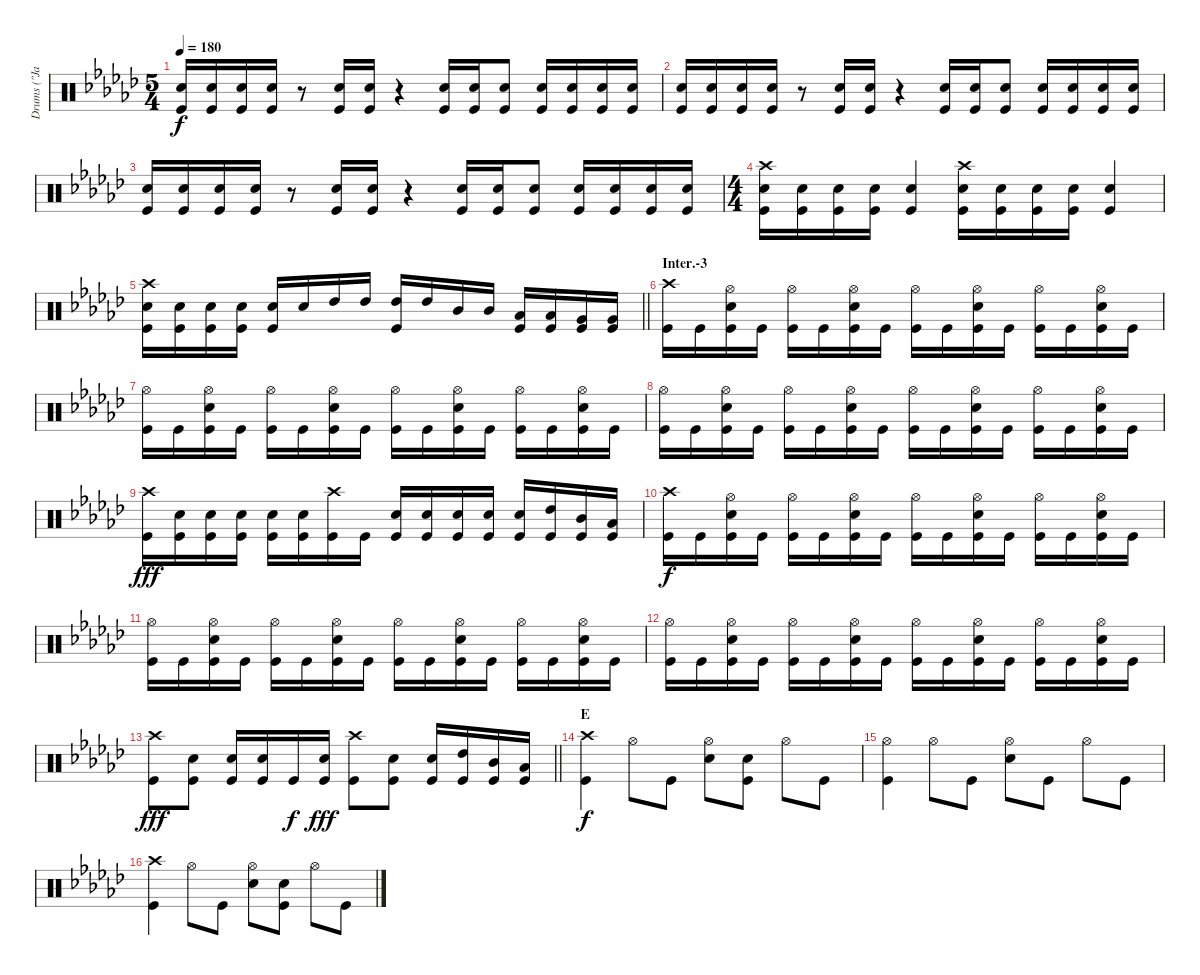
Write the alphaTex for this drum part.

\track ("Drums (\"Jane\")" "Drums (\"Ja") {instrument percussion}
\staff {score}
\articulation defaults
\ts (5 4)
\tempo 180
\clef neutral
\ks gb
("Snare (hit) 2" "Kick (hit)").16{dy f} ("Snare (hit) 2" "Kick (hit)").16 ("Snare (hit) 2" "Kick (hit)").16 ("Snare (hit) 2" "Kick (hit)").16 r.8 ("Snare (hit) 2" "Kick (hit)").16 ("Snare (hit) 2" "Kick (hit)").16 r.4 ("Snare (hit) 2" "Kick (hit)").16 ("Snare (hit) 2" "Kick (hit)").16 ("Snare (hit) 2" "Kick (hit)").8 ("Snare (hit) 2" "Kick (hit)").16 ("Snare (hit) 2" "Kick (hit)").16 ("Snare (hit) 2" "Kick (hit)").16 ("Snare (hit) 2" "Kick (hit)").16 |
("Snare (hit) 2" "Kick (hit)").16 ("Snare (hit) 2" "Kick (hit)").16 ("Snare (hit) 2" "Kick (hit)").16 ("Snare (hit) 2" "Kick (hit)").16 r.8 ("Snare (hit) 2" "Kick (hit)").16 ("Snare (hit) 2" "Kick (hit)").16 r.4 ("Snare (hit) 2" "Kick (hit)").16 ("Snare (hit) 2" "Kick (hit)").16 ("Snare (hit) 2" "Kick (hit)").8 ("Snare (hit) 2" "Kick (hit)").16 ("Snare (hit) 2" "Kick (hit)").16 ("Snare (hit) 2" "Kick (hit)").16 ("Snare (hit) 2" "Kick (hit)").16 |
("Snare (hit) 2" "Kick (hit)").16 ("Snare (hit) 2" "Kick (hit)").16 ("Snare (hit) 2" "Kick (hit)").16 ("Snare (hit) 2" "Kick (hit)").16 r.8 ("Snare (hit) 2" "Kick (hit)").16 ("Snare (hit) 2" "Kick (hit)").16 r.4 ("Snare (hit) 2" "Kick (hit)").16 ("Snare (hit) 2" "Kick (hit)").16 ("Snare (hit) 2" "Kick (hit)").8 ("Snare (hit) 2" "Kick (hit)").16 ("Snare (hit) 2" "Kick (hit)").16 ("Snare (hit) 2" "Kick (hit)").16 ("Snare (hit) 2" "Kick (hit)").16 |
\ts (4 4)
("Crash high (hit)" "Snare (hit) 2" "Kick (hit)").16 ("Snare (hit) 2" "Kick (hit)").16 ("Snare (hit) 2" "Kick (hit)").16 ("Snare (hit) 2" "Kick (hit)").16 ("Snare (hit) 2" "Kick (hit)").4 ("Crash high (hit)" "Snare (hit) 2" "Kick (hit)").16 ("Snare (hit) 2" "Kick (hit)").16 ("Snare (hit) 2" "Kick (hit)").16 ("Snare (hit) 2" "Kick (hit)").16 ("Snare (hit) 2" "Kick (hit)").4 |
\barLineRight lightlight
("Crash high (hit)" "Snare (hit) 2" "Kick (hit)").16 ("Snare (hit) 2" "Kick (hit)").16 ("Snare (hit) 2" "Kick (hit)").16 ("Snare (hit) 2" "Kick (hit)").16 ("Snare (hit) 2" "Kick (hit)").16 "Snare (hit) 2".16 "High Tom (hit)".16 "High Tom (hit)".16 ("High Tom (hit)" "Kick (hit)").16 "High Tom (hit)".16 "Mid Tom (hit)".16 "Mid Tom (hit)".16 ("Low Tom (hit)" "Kick (hit)").16 ("Low Tom (hit)" "Kick (hit)").16 ("Very Low Tom (hit)" "Kick (hit)").16 ("Very Low Tom (hit)" "Kick (hit)").16 |
\section ("" "Inter.-3")
("Crash high (hit)" "Kick (hit)").16 "Kick (hit)".16 ("Hi-Hat (open)" "Snare (hit) 2" "Kick (hit)").16 "Kick (hit)".16 ("Hi-Hat (open)" "Kick (hit)").16 "Kick (hit)".16 ("Hi-Hat (open)" "Snare (hit) 2" "Kick (hit)").16 "Kick (hit)".16 ("Hi-Hat (open)" "Kick (hit)").16 "Kick (hit)".16 ("Hi-Hat (open)" "Snare (hit) 2" "Kick (hit)").16 "Kick (hit)".16 ("Hi-Hat (open)" "Kick (hit)").16 "Kick (hit)".16 ("Hi-Hat (open)" "Snare (hit) 2" "Kick (hit)").16 "Kick (hit)".16 |
("Hi-Hat (open)" "Kick (hit)").16 "Kick (hit)".16 ("Hi-Hat (open)" "Snare (hit) 2" "Kick (hit)").16 "Kick (hit)".16 ("Hi-Hat (open)" "Kick (hit)").16 "Kick (hit)".16 ("Hi-Hat (open)" "Snare (hit) 2" "Kick (hit)").16 "Kick (hit)".16 ("Hi-Hat (open)" "Kick (hit)").16 "Kick (hit)".16 ("Hi-Hat (open)" "Snare (hit) 2" "Kick (hit)").16 "Kick (hit)".16 ("Hi-Hat (open)" "Kick (hit)").16 "Kick (hit)".16 ("Hi-Hat (open)" "Snare (hit) 2" "Kick (hit)").16 "Kick (hit)".16 |
("Hi-Hat (open)" "Kick (hit)").16 "Kick (hit)".16 ("Hi-Hat (open)" "Snare (hit) 2" "Kick (hit)").16 "Kick (hit)".16 ("Hi-Hat (open)" "Kick (hit)").16 "Kick (hit)".16 ("Hi-Hat (open)" "Snare (hit) 2" "Kick (hit)").16 "Kick (hit)".16 ("Hi-Hat (open)" "Kick (hit)").16 "Kick (hit)".16 ("Hi-Hat (open)" "Snare (hit) 2" "Kick (hit)").16 "Kick (hit)".16 ("Hi-Hat (open)" "Kick (hit)").16 "Kick (hit)".16 ("Hi-Hat (open)" "Snare (hit) 2" "Kick (hit)").16 "Kick (hit)".16 |
("Crash high (hit)" "Kick (hit)").16{dy fff} ("Snare (hit) 2" "Kick (hit)").16 ("Snare (hit) 2" "Kick (hit)").16 ("Snare (hit) 2" "Kick (hit)").16 ("Snare (hit) 2" "Kick (hit)").16 ("Snare (hit) 2" "Kick (hit)").16 ("Crash high (hit)" "Kick (hit)").16 "Kick (hit)".16 ("Snare (hit) 2" "Kick (hit)").16 ("Snare (hit) 2" "Kick (hit)").16 ("Snare (hit) 2" "Kick (hit)").16 ("Snare (hit) 2" "Kick (hit)").16 ("Snare (hit) 2" "Kick (hit)").16 ("High Tom (hit)" "Kick (hit)").16 ("Mid Tom (hit)" "Kick (hit)").16 ("Low Tom (hit)" "Kick (hit)").16 |
("Crash high (hit)" "Kick (hit)").16{dy f} "Kick (hit)".16 ("Hi-Hat (open)" "Snare (hit) 2" "Kick (hit)").16 "Kick (hit)".16 ("Hi-Hat (open)" "Kick (hit)").16 "Kick (hit)".16 ("Hi-Hat (open)" "Snare (hit) 2" "Kick (hit)").16 "Kick (hit)".16 ("Hi-Hat (open)" "Kick (hit)").16 "Kick (hit)".16 ("Hi-Hat (open)" "Snare (hit) 2" "Kick (hit)").16 "Kick (hit)".16 ("Hi-Hat (open)" "Kick (hit)").16 "Kick (hit)".16 ("Hi-Hat (open)" "Snare (hit) 2" "Kick (hit)").16 "Kick (hit)".16 |
("Hi-Hat (open)" "Kick (hit)").16 "Kick (hit)".16 ("Hi-Hat (open)" "Snare (hit) 2" "Kick (hit)").16 "Kick (hit)".16 ("Hi-Hat (open)" "Kick (hit)").16 "Kick (hit)".16 ("Hi-Hat (open)" "Snare (hit) 2" "Kick (hit)").16 "Kick (hit)".16 ("Hi-Hat (open)" "Kick (hit)").16 "Kick (hit)".16 ("Hi-Hat (open)" "Snare (hit) 2" "Kick (hit)").16 "Kick (hit)".16 ("Hi-Hat (open)" "Kick (hit)").16 "Kick (hit)".16 ("Hi-Hat (open)" "Snare (hit) 2" "Kick (hit)").16 "Kick (hit)".16 |
("Hi-Hat (open)" "Kick (hit)").16 "Kick (hit)".16 ("Hi-Hat (open)" "Snare (hit) 2" "Kick (hit)").16 "Kick (hit)".16 ("Hi-Hat (open)" "Kick (hit)").16 "Kick (hit)".16 ("Hi-Hat (open)" "Snare (hit) 2" "Kick (hit)").16 "Kick (hit)".16 ("Hi-Hat (open)" "Kick (hit)").16 "Kick (hit)".16 ("Hi-Hat (open)" "Snare (hit) 2" "Kick (hit)").16 "Kick (hit)".16 ("Hi-Hat (open)" "Kick (hit)").16 "Kick (hit)".16 ("Hi-Hat (open)" "Snare (hit) 2" "Kick (hit)").16 "Kick (hit)".16 |
\barLineRight lightlight
("Crash high (hit)" "Kick (hit)").8{dy fff} ("Snare (hit) 2" "Kick (hit)").8 ("Snare (hit) 2" "Kick (hit)").16 ("Snare (hit) 2" "Kick (hit)").16 "Kick (hit)".16{dy f} ("Snare (hit) 2" "Kick (hit)").16{dy fff} ("Crash high (hit)" "Kick (hit)").8 ("Snare (hit) 2" "Kick (hit)").8 ("Snare (hit) 2" "Kick (hit)").16 ("High Tom (hit)" "Kick (hit)").16 ("Mid Tom (hit)" "Kick (hit)").16 ("Low Tom (hit)" "Kick (hit)").16 |
\section ("" "E")
("Crash high (hit)" "Kick (hit)").4{dy f} "Hi-Hat (open)".8 "Kick (hit)".8 ("Hi-Hat (open)" "Snare (hit) 2").8 ("Snare (hit) 2" "Kick (hit)").8 "Hi-Hat (open)".8 "Kick (hit)".8 |
("Hi-Hat (open)" "Kick (hit)").4 "Hi-Hat (open)".8 "Kick (hit)".8 ("Hi-Hat (open)" "Snare (hit) 2").8 "Kick (hit)".8 "Hi-Hat (open)".8 "Kick (hit)".8 |
("Crash high (hit)" "Kick (hit)").4 "Hi-Hat (open)".8 "Kick (hit)".8 ("Hi-Hat (open)" "Snare (hit) 2").8 ("Snare (hit) 2" "Kick (hit)").8 "Hi-Hat (open)".8 "Kick (hit)".8
